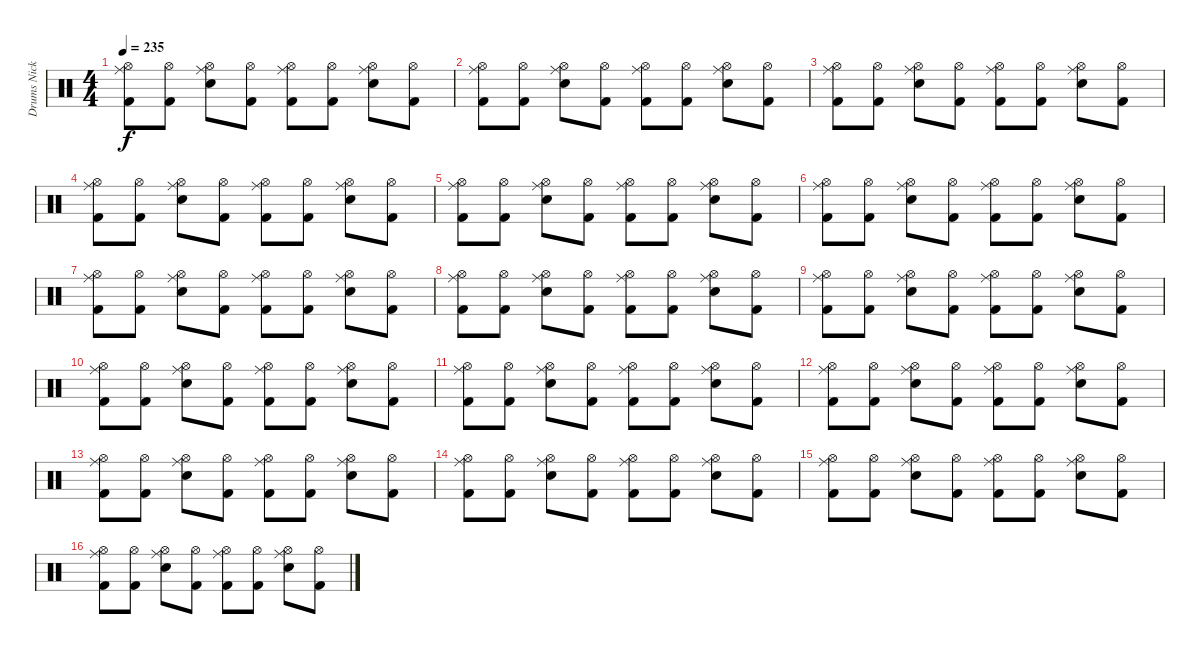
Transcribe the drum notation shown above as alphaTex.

\track ("Drums Nicko McBrain" "Drums Nick") {instrument percussion}
\staff {score}
\articulation defaults
\ts (4 4)
\tempo 230
\tempo 235
\clef neutral
\ks c
("Hi-Hat (open)" "Ride (middle)" "Kick (hit) 2").8{dy f} ("Hi-Hat (open)" "Kick (hit) 2").8 ("Hi-Hat (open)" "Ride (middle)" "Snare (hit) 2").8 ("Hi-Hat (open)" "Kick (hit) 2").8 ("Hi-Hat (open)" "Ride (middle)" "Kick (hit) 2").8 ("Hi-Hat (open)" "Kick (hit) 2").8 ("Hi-Hat (open)" "Ride (middle)" "Snare (hit) 2").8 ("Hi-Hat (open)" "Kick (hit) 2").8 |
("Hi-Hat (open)" "Ride (middle)" "Kick (hit) 2").8 ("Hi-Hat (open)" "Kick (hit) 2").8 ("Hi-Hat (open)" "Ride (middle)" "Snare (hit) 2").8 ("Hi-Hat (open)" "Kick (hit) 2").8 ("Hi-Hat (open)" "Ride (middle)" "Kick (hit) 2").8 ("Hi-Hat (open)" "Kick (hit) 2").8 ("Hi-Hat (open)" "Ride (middle)" "Snare (hit) 2").8 ("Hi-Hat (open)" "Kick (hit) 2").8 |
("Hi-Hat (open)" "Ride (middle)" "Kick (hit) 2").8 ("Hi-Hat (open)" "Kick (hit) 2").8 ("Hi-Hat (open)" "Ride (middle)" "Snare (hit) 2").8 ("Hi-Hat (open)" "Kick (hit) 2").8 ("Hi-Hat (open)" "Ride (middle)" "Kick (hit) 2").8 ("Hi-Hat (open)" "Kick (hit) 2").8 ("Hi-Hat (open)" "Ride (middle)" "Snare (hit) 2").8 ("Hi-Hat (open)" "Kick (hit) 2").8 |
("Hi-Hat (open)" "Ride (middle)" "Kick (hit) 2").8 ("Hi-Hat (open)" "Kick (hit) 2").8 ("Hi-Hat (open)" "Ride (middle)" "Snare (hit) 2").8 ("Hi-Hat (open)" "Kick (hit) 2").8 ("Hi-Hat (open)" "Ride (middle)" "Kick (hit) 2").8 ("Hi-Hat (open)" "Kick (hit) 2").8 ("Hi-Hat (open)" "Ride (middle)" "Snare (hit) 2").8 ("Hi-Hat (open)" "Kick (hit) 2").8 |
("Hi-Hat (open)" "Ride (middle)" "Kick (hit) 2").8 ("Hi-Hat (open)" "Kick (hit) 2").8 ("Hi-Hat (open)" "Ride (middle)" "Snare (hit) 2").8 ("Hi-Hat (open)" "Kick (hit) 2").8 ("Hi-Hat (open)" "Ride (middle)" "Kick (hit) 2").8 ("Hi-Hat (open)" "Kick (hit) 2").8 ("Hi-Hat (open)" "Ride (middle)" "Snare (hit) 2").8 ("Hi-Hat (open)" "Kick (hit) 2").8 |
("Hi-Hat (open)" "Ride (middle)" "Kick (hit) 2").8 ("Hi-Hat (open)" "Kick (hit) 2").8 ("Hi-Hat (open)" "Ride (middle)" "Snare (hit) 2").8 ("Hi-Hat (open)" "Kick (hit) 2").8 ("Hi-Hat (open)" "Ride (middle)" "Kick (hit) 2").8 ("Hi-Hat (open)" "Kick (hit) 2").8 ("Hi-Hat (open)" "Ride (middle)" "Snare (hit) 2").8 ("Hi-Hat (open)" "Kick (hit) 2").8 |
("Hi-Hat (open)" "Ride (middle)" "Kick (hit) 2").8 ("Hi-Hat (open)" "Kick (hit) 2").8 ("Hi-Hat (open)" "Ride (middle)" "Snare (hit) 2").8 ("Hi-Hat (open)" "Kick (hit) 2").8 ("Hi-Hat (open)" "Ride (middle)" "Kick (hit) 2").8 ("Hi-Hat (open)" "Kick (hit) 2").8 ("Hi-Hat (open)" "Ride (middle)" "Snare (hit) 2").8 ("Hi-Hat (open)" "Kick (hit) 2").8 |
("Hi-Hat (open)" "Ride (middle)" "Kick (hit) 2").8 ("Hi-Hat (open)" "Kick (hit) 2").8 ("Hi-Hat (open)" "Ride (middle)" "Snare (hit) 2").8 ("Hi-Hat (open)" "Kick (hit) 2").8 ("Hi-Hat (open)" "Ride (middle)" "Kick (hit) 2").8 ("Hi-Hat (open)" "Kick (hit) 2").8 ("Hi-Hat (open)" "Ride (middle)" "Snare (hit) 2").8 ("Hi-Hat (open)" "Kick (hit) 2").8 |
("Hi-Hat (open)" "Ride (middle)" "Kick (hit) 2").8 ("Hi-Hat (open)" "Kick (hit) 2").8 ("Hi-Hat (open)" "Ride (middle)" "Snare (hit) 2").8 ("Hi-Hat (open)" "Kick (hit) 2").8 ("Hi-Hat (open)" "Ride (middle)" "Kick (hit) 2").8 ("Hi-Hat (open)" "Kick (hit) 2").8 ("Hi-Hat (open)" "Ride (middle)" "Snare (hit) 2").8 ("Hi-Hat (open)" "Kick (hit) 2").8 |
("Hi-Hat (open)" "Ride (middle)" "Kick (hit) 2").8 ("Hi-Hat (open)" "Kick (hit) 2").8 ("Hi-Hat (open)" "Ride (middle)" "Snare (hit) 2").8 ("Hi-Hat (open)" "Kick (hit) 2").8 ("Hi-Hat (open)" "Ride (middle)" "Kick (hit) 2").8 ("Hi-Hat (open)" "Kick (hit) 2").8 ("Hi-Hat (open)" "Ride (middle)" "Snare (hit) 2").8 ("Hi-Hat (open)" "Kick (hit) 2").8 |
("Hi-Hat (open)" "Ride (middle)" "Kick (hit) 2").8 ("Hi-Hat (open)" "Kick (hit) 2").8 ("Hi-Hat (open)" "Ride (middle)" "Snare (hit) 2").8 ("Hi-Hat (open)" "Kick (hit) 2").8 ("Hi-Hat (open)" "Ride (middle)" "Kick (hit) 2").8 ("Hi-Hat (open)" "Kick (hit) 2").8 ("Hi-Hat (open)" "Ride (middle)" "Snare (hit) 2").8 ("Hi-Hat (open)" "Kick (hit) 2").8 |
("Hi-Hat (open)" "Ride (middle)" "Kick (hit) 2").8 ("Hi-Hat (open)" "Kick (hit) 2").8 ("Hi-Hat (open)" "Ride (middle)" "Snare (hit) 2").8 ("Hi-Hat (open)" "Kick (hit) 2").8 ("Hi-Hat (open)" "Ride (middle)" "Kick (hit) 2").8 ("Hi-Hat (open)" "Kick (hit) 2").8 ("Hi-Hat (open)" "Ride (middle)" "Snare (hit) 2").8 ("Hi-Hat (open)" "Kick (hit) 2").8 |
("Hi-Hat (open)" "Ride (middle)" "Kick (hit) 2").8 ("Hi-Hat (open)" "Kick (hit) 2").8 ("Hi-Hat (open)" "Ride (middle)" "Snare (hit) 2").8 ("Hi-Hat (open)" "Kick (hit) 2").8 ("Hi-Hat (open)" "Ride (middle)" "Kick (hit) 2").8 ("Hi-Hat (open)" "Kick (hit) 2").8 ("Hi-Hat (open)" "Ride (middle)" "Snare (hit) 2").8 ("Hi-Hat (open)" "Kick (hit) 2").8 |
("Hi-Hat (open)" "Ride (middle)" "Kick (hit) 2").8 ("Hi-Hat (open)" "Kick (hit) 2").8 ("Hi-Hat (open)" "Ride (middle)" "Snare (hit) 2").8 ("Hi-Hat (open)" "Kick (hit) 2").8 ("Hi-Hat (open)" "Ride (middle)" "Kick (hit) 2").8 ("Hi-Hat (open)" "Kick (hit) 2").8 ("Hi-Hat (open)" "Ride (middle)" "Snare (hit) 2").8 ("Hi-Hat (open)" "Kick (hit) 2").8 |
("Hi-Hat (open)" "Ride (middle)" "Kick (hit) 2").8 ("Hi-Hat (open)" "Kick (hit) 2").8 ("Hi-Hat (open)" "Ride (middle)" "Snare (hit) 2").8 ("Hi-Hat (open)" "Kick (hit) 2").8 ("Hi-Hat (open)" "Ride (middle)" "Kick (hit) 2").8 ("Hi-Hat (open)" "Kick (hit) 2").8 ("Hi-Hat (open)" "Ride (middle)" "Snare (hit) 2").8 ("Hi-Hat (open)" "Kick (hit) 2").8 |
("Hi-Hat (open)" "Ride (middle)" "Kick (hit) 2").8 ("Hi-Hat (open)" "Kick (hit) 2").8 ("Hi-Hat (open)" "Ride (middle)" "Snare (hit) 2").8 ("Hi-Hat (open)" "Kick (hit) 2").8 ("Hi-Hat (open)" "Ride (middle)" "Kick (hit) 2").8 ("Hi-Hat (open)" "Kick (hit) 2").8 ("Hi-Hat (open)" "Ride (middle)" "Snare (hit) 2").8 ("Hi-Hat (open)" "Kick (hit) 2").8
